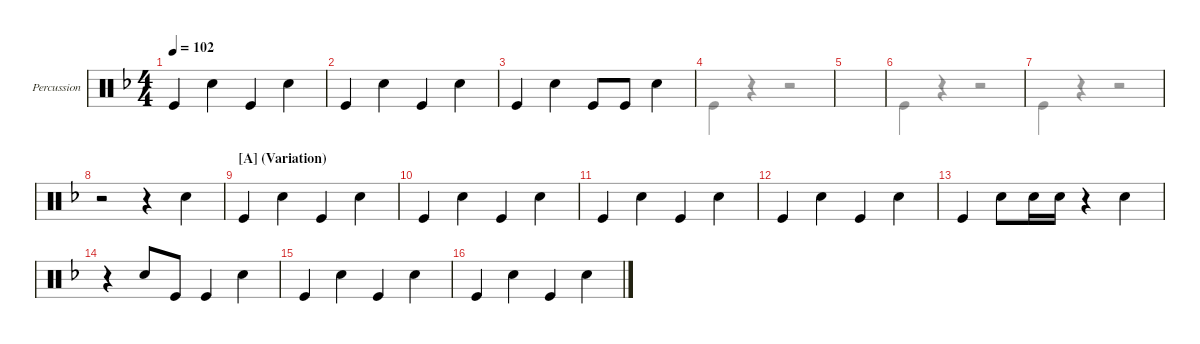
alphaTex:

\defaultSystemsLayout 4
\hideDynamics
\bracketExtendMode groupsimilarinstruments
\firstSystemTrackNameMode fullname
\otherSystemsTrackNameMode fullname
\firstSystemTrackNameOrientation horizontal
\otherSystemsTrackNameOrientation horizontal
\track ("Percussion" "Perc.") {instrument percussion}
\staff {score}
\articulation defaults
\voice
\ts (4 4)
\tempo 102
\clef neutral
\ks dminor "Kick (hit)".4{dy mf} "Snare (hit) 2".4 "Kick (hit)".4 "Snare (hit) 2".4
|
"Kick (hit)".4 "Snare (hit) 2".4 "Kick (hit)".4 "Snare (hit) 2".4 |
"Kick (hit)".4 "Snare (hit) 2".4 "Kick (hit)".8 "Kick (hit)".8 "Snare (hit) 2".4 |
|
|
|
|
r.2 r.4 "Snare (hit) 2".4 |
\section ("A" "(Variation)")
"Kick (hit)".4 "Snare (hit) 2".4 "Kick (hit)".4 "Snare (hit) 2".4 |
"Kick (hit)".4 "Snare (hit) 2".4 "Kick (hit)".4 "Snare (hit) 2".4 |
"Kick (hit)".4 "Snare (hit) 2".4 "Kick (hit)".4 "Snare (hit) 2".4 |
"Kick (hit)".4 "Snare (hit) 2".4 "Kick (hit)".4 "Snare (hit) 2".4 |
"Kick (hit)".4 "Snare (hit) 2".8 "Snare (hit) 2".16 "Snare (hit) 2".16 r.4 "Snare (hit) 2".4 |
r.4 "Snare (hit) 2".8 "Kick (hit)".8 "Kick (hit)".4 "Snare (hit) 2".4 |
"Kick (hit)".4 "Snare (hit) 2".4 "Kick (hit)".4 "Snare (hit) 2".4 |
"Kick (hit)".4 "Snare (hit) 2".4 "Kick (hit)".4 "Snare (hit) 2".4
\voice
\clef neutral
\ottava regular
\simile none
\ks dminor
|
|
|
"Kick (hit)".4 r.4 r.2 |
|
"Kick (hit)".4 r.4 r.2 |
"Kick (hit)".4 r.4 r.2 |
|
|
|
|
|
|
|
|
